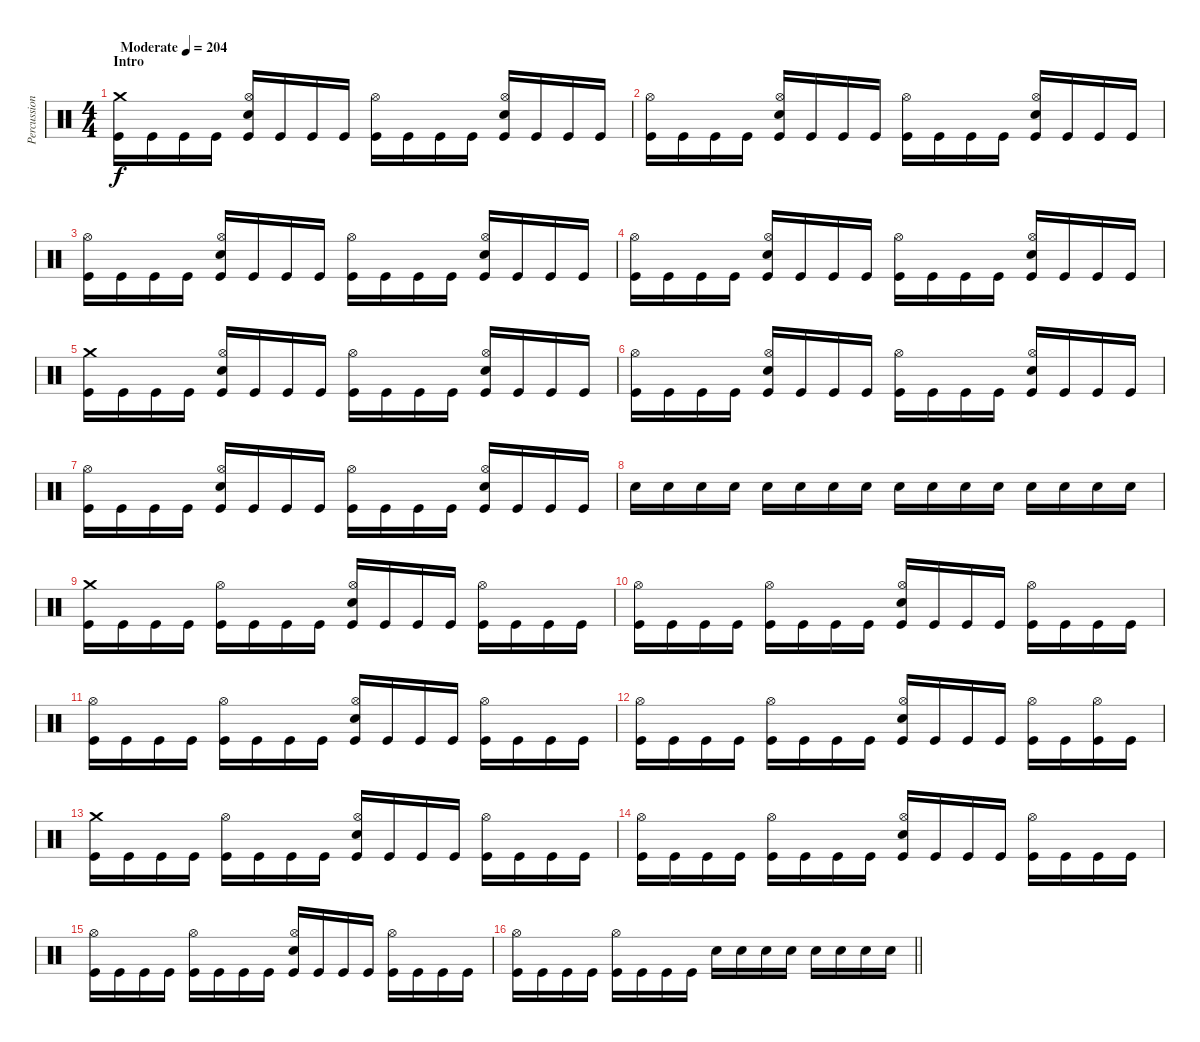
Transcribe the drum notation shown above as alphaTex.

\track ("Percussion" "Percussion") {instrument percussion}
\staff {score}
\articulation defaults
\ts (4 4)
\section ("" "Intro")
\tempo (204 "Moderate")
\clef neutral
\ks c
("Crash medium (hit)" "Kick (hit)").16{dy f} "Kick (hit)".16 "Kick (hit)".16 "Kick (hit)".16 ("Hi-Hat (open)" "Electric Snare (hit)" "Kick (hit)").16 "Kick (hit)".16 "Kick (hit)".16 "Kick (hit)".16 ("Hi-Hat (open)" "Kick (hit)").16 "Kick (hit)".16 "Kick (hit)".16 "Kick (hit)".16 ("Hi-Hat (open)" "Electric Snare (hit)" "Kick (hit)").16 "Kick (hit)".16 "Kick (hit)".16 "Kick (hit)".16 |
("Hi-Hat (open)" "Kick (hit)").16 "Kick (hit)".16 "Kick (hit)".16 "Kick (hit)".16 ("Hi-Hat (open)" "Electric Snare (hit)" "Kick (hit)").16 "Kick (hit)".16 "Kick (hit)".16 "Kick (hit)".16 ("Hi-Hat (open)" "Kick (hit)").16 "Kick (hit)".16 "Kick (hit)".16 "Kick (hit)".16 ("Hi-Hat (open)" "Electric Snare (hit)" "Kick (hit)").16 "Kick (hit)".16 "Kick (hit)".16 "Kick (hit)".16 |
("Hi-Hat (open)" "Kick (hit)").16 "Kick (hit)".16 "Kick (hit)".16 "Kick (hit)".16 ("Hi-Hat (open)" "Electric Snare (hit)" "Kick (hit)").16 "Kick (hit)".16 "Kick (hit)".16 "Kick (hit)".16 ("Hi-Hat (open)" "Kick (hit)").16 "Kick (hit)".16 "Kick (hit)".16 "Kick (hit)".16 ("Hi-Hat (open)" "Electric Snare (hit)" "Kick (hit)").16 "Kick (hit)".16 "Kick (hit)".16 "Kick (hit)".16 |
("Hi-Hat (open)" "Kick (hit)").16 "Kick (hit)".16 "Kick (hit)".16 "Kick (hit)".16 ("Hi-Hat (open)" "Electric Snare (hit)" "Kick (hit)").16 "Kick (hit)".16 "Kick (hit)".16 "Kick (hit)".16 ("Hi-Hat (open)" "Kick (hit)").16 "Kick (hit)".16 "Kick (hit)".16 "Kick (hit)".16 ("Hi-Hat (open)" "Electric Snare (hit)" "Kick (hit)").16 "Kick (hit)".16 "Kick (hit)".16 "Kick (hit)".16 |
("Crash medium (hit)" "Kick (hit)").16 "Kick (hit)".16 "Kick (hit)".16 "Kick (hit)".16 ("Hi-Hat (open)" "Electric Snare (hit)" "Kick (hit)").16 "Kick (hit)".16 "Kick (hit)".16 "Kick (hit)".16 ("Hi-Hat (open)" "Kick (hit)").16 "Kick (hit)".16 "Kick (hit)".16 "Kick (hit)".16 ("Hi-Hat (open)" "Electric Snare (hit)" "Kick (hit)").16 "Kick (hit)".16 "Kick (hit)".16 "Kick (hit)".16 |
("Hi-Hat (open)" "Kick (hit)").16 "Kick (hit)".16 "Kick (hit)".16 "Kick (hit)".16 ("Hi-Hat (open)" "Electric Snare (hit)" "Kick (hit)").16 "Kick (hit)".16 "Kick (hit)".16 "Kick (hit)".16 ("Hi-Hat (open)" "Kick (hit)").16 "Kick (hit)".16 "Kick (hit)".16 "Kick (hit)".16 ("Hi-Hat (open)" "Electric Snare (hit)" "Kick (hit)").16 "Kick (hit)".16 "Kick (hit)".16 "Kick (hit)".16 |
("Hi-Hat (open)" "Kick (hit)").16 "Kick (hit)".16 "Kick (hit)".16 "Kick (hit)".16 ("Hi-Hat (open)" "Electric Snare (hit)" "Kick (hit)").16 "Kick (hit)".16 "Kick (hit)".16 "Kick (hit)".16 ("Hi-Hat (open)" "Kick (hit)").16 "Kick (hit)".16 "Kick (hit)".16 "Kick (hit)".16 ("Hi-Hat (open)" "Electric Snare (hit)" "Kick (hit)").16 "Kick (hit)".16 "Kick (hit)".16 "Kick (hit)".16 |
"Electric Snare (hit)".16 "Electric Snare (hit)".16 "Electric Snare (hit)".16 "Electric Snare (hit)".16 "Electric Snare (hit)".16 "Electric Snare (hit)".16 "Electric Snare (hit)".16 "Electric Snare (hit)".16 "Electric Snare (hit)".16 "Electric Snare (hit)".16 "Electric Snare (hit)".16 "Electric Snare (hit)".16 "Electric Snare (hit)".16 "Electric Snare (hit)".16 "Electric Snare (hit)".16 "Electric Snare (hit)".16 |
("Crash medium (hit)" "Kick (hit)").16 "Kick (hit)".16 "Kick (hit)".16 "Kick (hit)".16 ("Hi-Hat (open)" "Kick (hit)").16 "Kick (hit)".16 "Kick (hit)".16 "Kick (hit)".16 ("Hi-Hat (open)" "Electric Snare (hit)" "Kick (hit)").16 "Kick (hit)".16 "Kick (hit)".16 "Kick (hit)".16 ("Hi-Hat (open)" "Kick (hit)").16 "Kick (hit)".16 "Kick (hit)".16 "Kick (hit)".16 |
("Hi-Hat (open)" "Kick (hit)").16 "Kick (hit)".16 "Kick (hit)".16 "Kick (hit)".16 ("Hi-Hat (open)" "Kick (hit)").16 "Kick (hit)".16 "Kick (hit)".16 "Kick (hit)".16 ("Hi-Hat (open)" "Electric Snare (hit)" "Kick (hit)").16 "Kick (hit)".16 "Kick (hit)".16 "Kick (hit)".16 ("Hi-Hat (open)" "Kick (hit)").16 "Kick (hit)".16 "Kick (hit)".16 "Kick (hit)".16 |
("Hi-Hat (open)" "Kick (hit)").16 "Kick (hit)".16 "Kick (hit)".16 "Kick (hit)".16 ("Hi-Hat (open)" "Kick (hit)").16 "Kick (hit)".16 "Kick (hit)".16 "Kick (hit)".16 ("Hi-Hat (open)" "Electric Snare (hit)" "Kick (hit)").16 "Kick (hit)".16 "Kick (hit)".16 "Kick (hit)".16 ("Hi-Hat (open)" "Kick (hit)").16 "Kick (hit)".16 "Kick (hit)".16 "Kick (hit)".16 |
("Hi-Hat (open)" "Kick (hit)").16 "Kick (hit)".16 "Kick (hit)".16 "Kick (hit)".16 ("Hi-Hat (open)" "Kick (hit)").16 "Kick (hit)".16 "Kick (hit)".16 "Kick (hit)".16 ("Hi-Hat (open)" "Electric Snare (hit)" "Kick (hit)").16 "Kick (hit)".16 "Kick (hit)".16 "Kick (hit)".16 ("Hi-Hat (open)" "Kick (hit)").16 "Kick (hit)".16 ("Hi-Hat (open)" "Kick (hit)").16 "Kick (hit)".16 |
("Crash medium (hit)" "Kick (hit)").16 "Kick (hit)".16 "Kick (hit)".16 "Kick (hit)".16 ("Hi-Hat (open)" "Kick (hit)").16 "Kick (hit)".16 "Kick (hit)".16 "Kick (hit)".16 ("Hi-Hat (open)" "Electric Snare (hit)" "Kick (hit)").16 "Kick (hit)".16 "Kick (hit)".16 "Kick (hit)".16 ("Hi-Hat (open)" "Kick (hit)").16 "Kick (hit)".16 "Kick (hit)".16 "Kick (hit)".16 |
("Hi-Hat (open)" "Kick (hit)").16 "Kick (hit)".16 "Kick (hit)".16 "Kick (hit)".16 ("Hi-Hat (open)" "Kick (hit)").16 "Kick (hit)".16 "Kick (hit)".16 "Kick (hit)".16 ("Hi-Hat (open)" "Electric Snare (hit)" "Kick (hit)").16 "Kick (hit)".16 "Kick (hit)".16 "Kick (hit)".16 ("Hi-Hat (open)" "Kick (hit)").16 "Kick (hit)".16 "Kick (hit)".16 "Kick (hit)".16 |
("Hi-Hat (open)" "Kick (hit)").16 "Kick (hit)".16 "Kick (hit)".16 "Kick (hit)".16 ("Hi-Hat (open)" "Kick (hit)").16 "Kick (hit)".16 "Kick (hit)".16 "Kick (hit)".16 ("Hi-Hat (open)" "Electric Snare (hit)" "Kick (hit)").16 "Kick (hit)".16 "Kick (hit)".16 "Kick (hit)".16 ("Hi-Hat (open)" "Kick (hit)").16 "Kick (hit)".16 "Kick (hit)".16 "Kick (hit)".16 |
\barLineRight lightlight
("Hi-Hat (open)" "Kick (hit)").16 "Kick (hit)".16 "Kick (hit)".16 "Kick (hit)".16 ("Hi-Hat (open)" "Kick (hit)").16 "Kick (hit)".16 "Kick (hit)".16 "Kick (hit)".16 "Electric Snare (hit)".16 "Electric Snare (hit)".16 "Electric Snare (hit)".16 "Electric Snare (hit)".16 "Electric Snare (hit)".16 "Electric Snare (hit)".16 "Electric Snare (hit)".16 "Electric Snare (hit)".16
